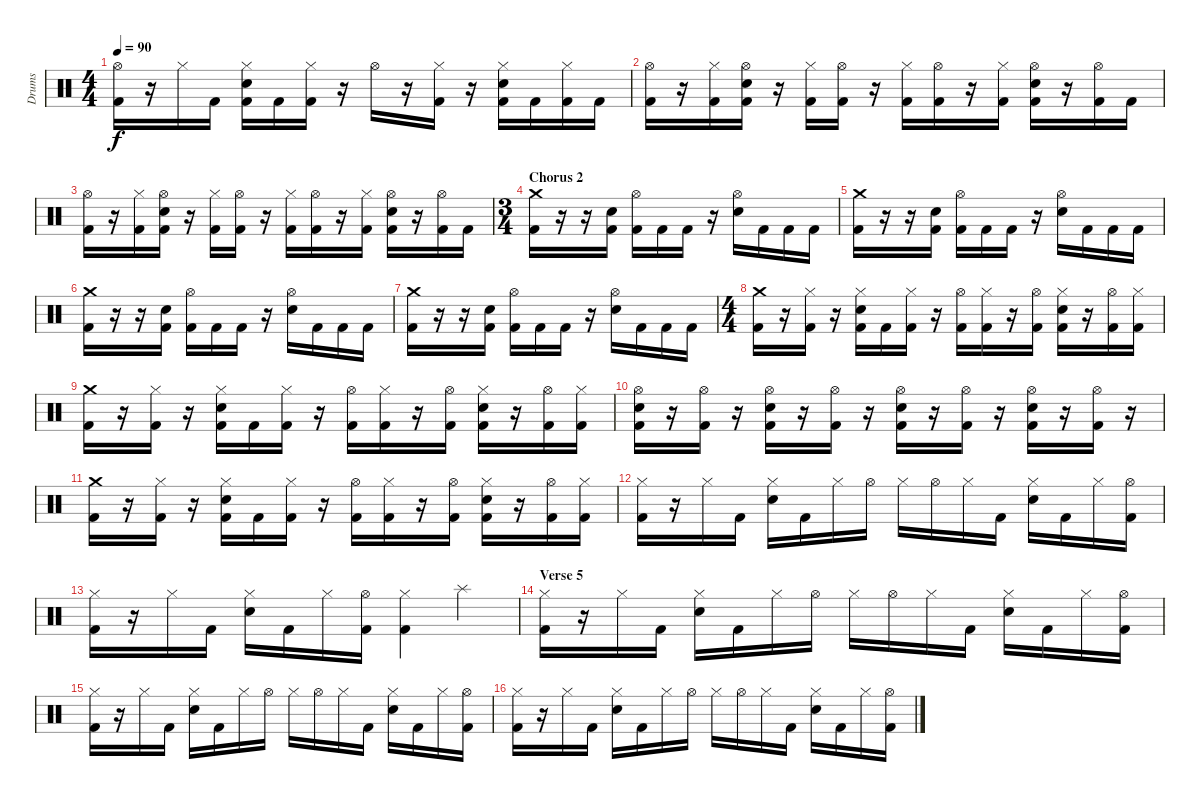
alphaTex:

\track ("Drums" "Drums") {instrument percussion}
\staff {score}
\articulation defaults
\ts (4 4)
\tempo 90
\clef neutral
\ks c
("Hi-Hat (open)" "Kick (hit) 2").16{dy f} r.16 "Hi-Hat (closed)".16 "Kick (hit) 2".16 ("Hi-Hat (closed)" "Snare (hit) 2" "Kick (hit) 2").16 "Kick (hit) 2".16 ("Hi-Hat (closed)" "Kick (hit) 2").16 r.16 "Hi-Hat (open)".16 r.16 ("Hi-Hat (closed)" "Kick (hit) 2").16 r.16 ("Hi-Hat (closed)" "Snare (hit) 2" "Kick (hit) 2").16 "Kick (hit) 2".16 ("Hi-Hat (closed)" "Kick (hit) 2").16 "Kick (hit) 2".16 |
("Hi-Hat (open)" "Kick (hit) 2").16 r.16 ("Hi-Hat (closed)" "Kick (hit) 2").16 ("Hi-Hat (open)" "Snare (hit) 2" "Kick (hit) 2").16 r.16 ("Hi-Hat (closed)" "Kick (hit) 2").16 ("Hi-Hat (open)" "Kick (hit) 2").16 r.16 ("Hi-Hat (closed)" "Kick (hit) 2").16 ("Hi-Hat (open)" "Kick (hit) 2").16 r.16 ("Hi-Hat (closed)" "Kick (hit) 2").16 ("Hi-Hat (open)" "Snare (hit) 2" "Kick (hit) 2").16 r.16 ("Hi-Hat (open)" "Kick (hit) 2").16 "Kick (hit) 2".16 |
("Hi-Hat (open)" "Kick (hit) 2").16 r.16 ("Hi-Hat (closed)" "Kick (hit) 2").16 ("Hi-Hat (open)" "Snare (hit) 2" "Kick (hit) 2").16 r.16 ("Hi-Hat (closed)" "Kick (hit) 2").16 ("Hi-Hat (open)" "Kick (hit) 2").16 r.16 ("Hi-Hat (closed)" "Kick (hit) 2").16 ("Hi-Hat (open)" "Kick (hit) 2").16 r.16 ("Hi-Hat (closed)" "Kick (hit) 2").16 ("Hi-Hat (open)" "Snare (hit) 2" "Kick (hit) 2").16 r.16 ("Hi-Hat (open)" "Kick (hit) 2").16 "Kick (hit) 2".16 |
\ts (3 4)
\section ("" "Chorus 2")
("Crash medium (hit)" "Kick (hit) 2").16 r.16 r.16 ("Snare (hit) 2" "Kick (hit) 2").16 ("Hi-Hat (open)" "Kick (hit) 2").16 "Kick (hit) 2".16 "Kick (hit) 2".16 r.16 ("Hi-Hat (open)" "Snare (hit) 2").16 "Kick (hit) 2".16 "Kick (hit) 2".16 "Kick (hit) 2".16 |
("Crash medium (hit)" "Kick (hit) 2").16 r.16 r.16 ("Snare (hit) 2" "Kick (hit) 2").16 ("Hi-Hat (open)" "Kick (hit) 2").16 "Kick (hit) 2".16 "Kick (hit) 2".16 r.16 ("Hi-Hat (open)" "Snare (hit) 2").16 "Kick (hit) 2".16 "Kick (hit) 2".16 "Kick (hit) 2".16 |
("Crash medium (hit)" "Kick (hit) 2").16 r.16 r.16 ("Snare (hit) 2" "Kick (hit) 2").16 ("Hi-Hat (open)" "Kick (hit) 2").16 "Kick (hit) 2".16 "Kick (hit) 2".16 r.16 ("Hi-Hat (open)" "Snare (hit) 2").16 "Kick (hit) 2".16 "Kick (hit) 2".16 "Kick (hit) 2".16 |
("Crash medium (hit)" "Kick (hit) 2").16 r.16 r.16 ("Snare (hit) 2" "Kick (hit) 2").16 ("Hi-Hat (open)" "Kick (hit) 2").16 "Kick (hit) 2".16 "Kick (hit) 2".16 r.16 ("Hi-Hat (open)" "Snare (hit) 2").16 "Kick (hit) 2".16 "Kick (hit) 2".16 "Kick (hit) 2".16 |
\ts (4 4)
("Crash medium (hit)" "Kick (hit) 2").16 r.16 ("Hi-Hat (closed)" "Kick (hit) 2").16 r.16 ("Hi-Hat (closed)" "Snare (hit) 2" "Kick (hit) 2").16 "Kick (hit) 2".16 ("Hi-Hat (closed)" "Kick (hit) 2").16 r.16 ("Hi-Hat (open)" "Kick (hit) 2").16 ("Hi-Hat (closed)" "Kick (hit) 2").16 r.16 ("Hi-Hat (open)" "Kick (hit) 2").16 ("Hi-Hat (closed)" "Snare (hit) 2" "Kick (hit) 2").16 r.16 ("Hi-Hat (open)" "Kick (hit) 2").16 ("Hi-Hat (closed)" "Kick (hit) 2").16 |
("Crash medium (hit)" "Kick (hit) 2").16 r.16 ("Hi-Hat (closed)" "Kick (hit) 2").16 r.16 ("Hi-Hat (closed)" "Snare (hit) 2" "Kick (hit) 2").16 "Kick (hit) 2".16 ("Hi-Hat (closed)" "Kick (hit) 2").16 r.16 ("Hi-Hat (open)" "Kick (hit) 2").16 ("Hi-Hat (closed)" "Kick (hit) 2").16 r.16 ("Hi-Hat (open)" "Kick (hit) 2").16 ("Hi-Hat (closed)" "Snare (hit) 2" "Kick (hit) 2").16 r.16 ("Hi-Hat (open)" "Kick (hit) 2").16 ("Hi-Hat (closed)" "Kick (hit) 2").16 |
("Hi-Hat (open)" "Snare (hit) 2" "Kick (hit) 2").16 r.16 ("Hi-Hat (open)" "Kick (hit) 2").16 r.16 ("Hi-Hat (open)" "Snare (hit) 2" "Kick (hit) 2").16 r.16 ("Hi-Hat (open)" "Kick (hit) 2").16 r.16 ("Hi-Hat (open)" "Snare (hit) 2" "Kick (hit) 2").16 r.16 ("Hi-Hat (open)" "Kick (hit) 2").16 r.16 ("Hi-Hat (open)" "Snare (hit) 2" "Kick (hit) 2").16 r.16 ("Hi-Hat (open)" "Kick (hit) 2").16 r.16 |
("Crash medium (hit)" "Kick (hit) 2").16 r.16 ("Hi-Hat (closed)" "Kick (hit) 2").16 r.16 ("Hi-Hat (closed)" "Snare (hit) 2" "Kick (hit) 2").16 "Kick (hit) 2".16 ("Hi-Hat (closed)" "Kick (hit) 2").16 r.16 ("Hi-Hat (open)" "Kick (hit) 2").16 ("Hi-Hat (closed)" "Kick (hit) 2").16 r.16 ("Hi-Hat (open)" "Kick (hit) 2").16 ("Hi-Hat (closed)" "Snare (hit) 2" "Kick (hit) 2").16 r.16 ("Hi-Hat (open)" "Kick (hit) 2").16 ("Hi-Hat (closed)" "Kick (hit) 2").16 |
("Hi-Hat (closed)" "Kick (hit) 2").16 r.16 "Hi-Hat (closed)".16 "Kick (hit) 2".16 ("Hi-Hat (closed)" "Snare (hit) 2").16 "Kick (hit) 2".16 "Hi-Hat (closed)".16 "Hi-Hat (open)".16 "Hi-Hat (closed)".16 "Hi-Hat (open)".16 "Hi-Hat (closed)".16 "Kick (hit) 2".16 ("Hi-Hat (closed)" "Snare (hit) 2").16 "Kick (hit) 2".16 "Hi-Hat (closed)".16 ("Hi-Hat (open)" "Kick (hit) 2").16 |
("Hi-Hat (closed)" "Kick (hit) 2").16 r.16 "Hi-Hat (closed)".16 "Kick (hit) 2".16 ("Hi-Hat (closed)" "Snare (hit) 2").16 "Kick (hit) 2".16 "Hi-Hat (closed)".16 ("Hi-Hat (open)" "Kick (hit) 2").16 ("Hi-Hat (closed)" "Kick (hit) 2").4 "Splash (hit)".4 |
\section ("" "Verse 5")
("Hi-Hat (closed)" "Kick (hit) 2").16 r.16 "Hi-Hat (closed)".16 "Kick (hit) 2".16 ("Hi-Hat (closed)" "Snare (hit) 2").16 "Kick (hit) 2".16 "Hi-Hat (closed)".16 "Hi-Hat (open)".16 "Hi-Hat (closed)".16 "Hi-Hat (open)".16 "Hi-Hat (closed)".16 "Kick (hit) 2".16 ("Hi-Hat (closed)" "Snare (hit) 2").16 "Kick (hit) 2".16 "Hi-Hat (closed)".16 ("Hi-Hat (open)" "Kick (hit) 2").16 |
("Hi-Hat (closed)" "Kick (hit) 2").16 r.16 "Hi-Hat (closed)".16 "Kick (hit) 2".16 ("Hi-Hat (closed)" "Snare (hit) 2").16 "Kick (hit) 2".16 "Hi-Hat (closed)".16 "Hi-Hat (open)".16 "Hi-Hat (closed)".16 "Hi-Hat (open)".16 "Hi-Hat (closed)".16 "Kick (hit) 2".16 ("Hi-Hat (closed)" "Snare (hit) 2").16 "Kick (hit) 2".16 "Hi-Hat (closed)".16 ("Hi-Hat (open)" "Kick (hit) 2").16 |
("Hi-Hat (closed)" "Kick (hit) 2").16 r.16 "Hi-Hat (closed)".16 "Kick (hit) 2".16 ("Hi-Hat (closed)" "Snare (hit) 2").16 "Kick (hit) 2".16 "Hi-Hat (closed)".16 "Hi-Hat (open)".16 "Hi-Hat (closed)".16 "Hi-Hat (open)".16 "Hi-Hat (closed)".16 "Kick (hit) 2".16 ("Hi-Hat (closed)" "Snare (hit) 2").16 "Kick (hit) 2".16 "Hi-Hat (closed)".16 ("Hi-Hat (open)" "Kick (hit) 2").16
